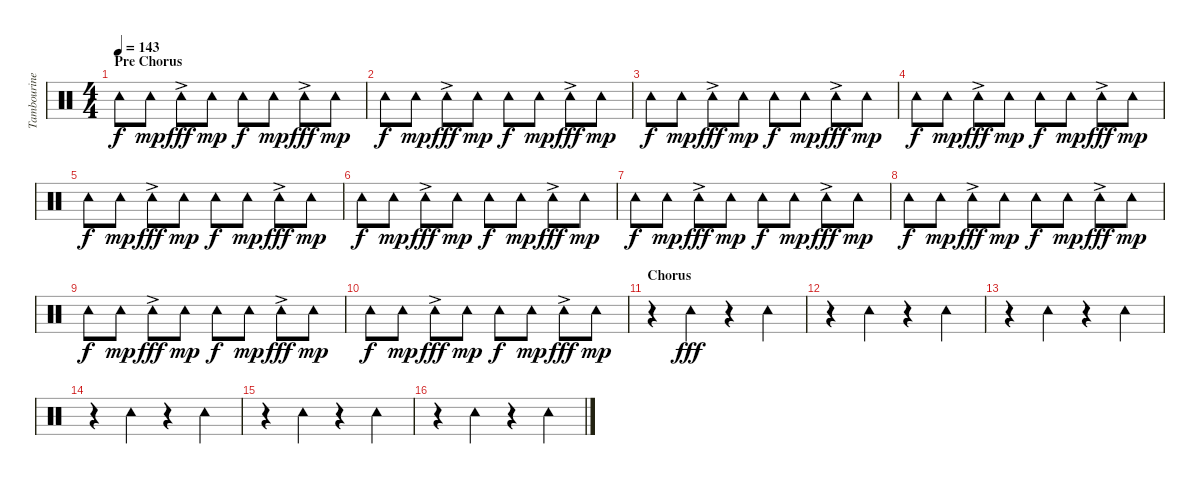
\track ("Tambourine" "Tambourine") {instrument percussion}
\staff {score}
\articulation defaults
\ts (4 4)
\section ("" "Pre Chorus")
\tempo 143
\clef neutral
\ks c "Tambourine (hit)".8{dy f} "Tambourine (hit)".8{dy mp} "Tambourine (hit)"{ac}.8{dy fff} "Tambourine (hit)".8{dy mp} "Tambourine (hit)".8{dy f} "Tambourine (hit)".8{dy mp} "Tambourine (hit)"{ac}.8{dy fff} "Tambourine (hit)".8{dy mp}
|
"Tambourine (hit)".8{dy f} "Tambourine (hit)".8{dy mp} "Tambourine (hit)"{ac}.8{dy fff} "Tambourine (hit)".8{dy mp} "Tambourine (hit)".8{dy f} "Tambourine (hit)".8{dy mp} "Tambourine (hit)"{ac}.8{dy fff} "Tambourine (hit)".8{dy mp} |
"Tambourine (hit)".8{dy f} "Tambourine (hit)".8{dy mp} "Tambourine (hit)"{ac}.8{dy fff} "Tambourine (hit)".8{dy mp} "Tambourine (hit)".8{dy f} "Tambourine (hit)".8{dy mp} "Tambourine (hit)"{ac}.8{dy fff} "Tambourine (hit)".8{dy mp} |
"Tambourine (hit)".8{dy f} "Tambourine (hit)".8{dy mp} "Tambourine (hit)"{ac}.8{dy fff} "Tambourine (hit)".8{dy mp} "Tambourine (hit)".8{dy f} "Tambourine (hit)".8{dy mp} "Tambourine (hit)"{ac}.8{dy fff} "Tambourine (hit)".8{dy mp} |
"Tambourine (hit)".8{dy f} "Tambourine (hit)".8{dy mp} "Tambourine (hit)"{ac}.8{dy fff} "Tambourine (hit)".8{dy mp} "Tambourine (hit)".8{dy f} "Tambourine (hit)".8{dy mp} "Tambourine (hit)"{ac}.8{dy fff} "Tambourine (hit)".8{dy mp} |
"Tambourine (hit)".8{dy f} "Tambourine (hit)".8{dy mp} "Tambourine (hit)"{ac}.8{dy fff} "Tambourine (hit)".8{dy mp} "Tambourine (hit)".8{dy f} "Tambourine (hit)".8{dy mp} "Tambourine (hit)"{ac}.8{dy fff} "Tambourine (hit)".8{dy mp} |
"Tambourine (hit)".8{dy f} "Tambourine (hit)".8{dy mp} "Tambourine (hit)"{ac}.8{dy fff} "Tambourine (hit)".8{dy mp} "Tambourine (hit)".8{dy f} "Tambourine (hit)".8{dy mp} "Tambourine (hit)"{ac}.8{dy fff} "Tambourine (hit)".8{dy mp} |
"Tambourine (hit)".8{dy f} "Tambourine (hit)".8{dy mp} "Tambourine (hit)"{ac}.8{dy fff} "Tambourine (hit)".8{dy mp} "Tambourine (hit)".8{dy f} "Tambourine (hit)".8{dy mp} "Tambourine (hit)"{ac}.8{dy fff} "Tambourine (hit)".8{dy mp} |
"Tambourine (hit)".8{dy f} "Tambourine (hit)".8{dy mp} "Tambourine (hit)"{ac}.8{dy fff} "Tambourine (hit)".8{dy mp} "Tambourine (hit)".8{dy f} "Tambourine (hit)".8{dy mp} "Tambourine (hit)"{ac}.8{dy fff} "Tambourine (hit)".8{dy mp} |
"Tambourine (hit)".8{dy f} "Tambourine (hit)".8{dy mp} "Tambourine (hit)"{ac}.8{dy fff} "Tambourine (hit)".8{dy mp} "Tambourine (hit)".8{dy f} "Tambourine (hit)".8{dy mp} "Tambourine (hit)"{ac}.8{dy fff} "Tambourine (hit)".8{dy mp} |
\section ("" "Chorus")
r.4 "Tambourine (hit)".4{dy fff} r.4 "Tambourine (hit)".4 |
r.4 "Tambourine (hit)".4 r.4 "Tambourine (hit)".4 |
r.4 "Tambourine (hit)".4 r.4 "Tambourine (hit)".4 |
r.4 "Tambourine (hit)".4 r.4 "Tambourine (hit)".4 |
r.4 "Tambourine (hit)".4 r.4 "Tambourine (hit)".4 |
r.4 "Tambourine (hit)".4 r.4 "Tambourine (hit)".4
